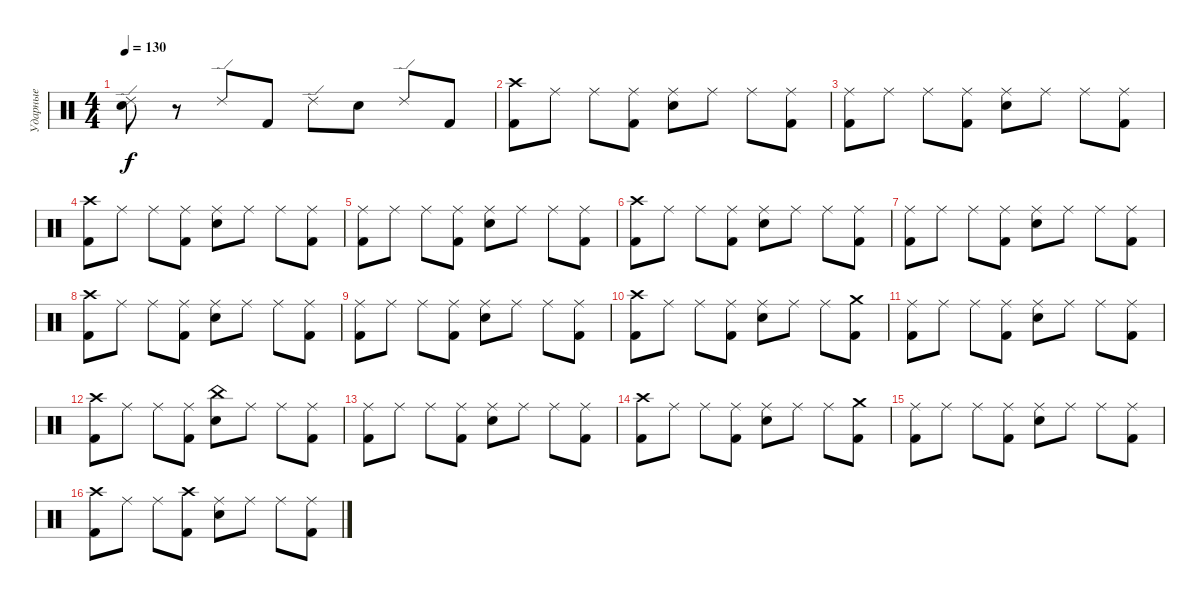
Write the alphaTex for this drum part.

\track ("Ударные" "Ударные") {instrument percussion}
\staff {score}
\articulation defaults
\ts (4 4)
\tempo 130
\clef neutral
\ks c
("Ride (edge) 2" "Electric Snare (hit)").8{dy f} r.8 "Ride (edge) 2".8 "Kick (hit) 2".8 "Ride (edge) 2".8 "Electric Snare (hit)".8 "Ride (edge) 2".8 "Kick (hit) 2".8 |
("Crash high (hit)" "Kick (hit) 2").8 "Ride (middle)".8 "Ride (middle)".8 ("Ride (middle)" "Kick (hit) 2").8 ("Ride (middle)" "Electric Snare (hit)").8 "Ride (middle)".8 "Ride (middle)".8 ("Ride (middle)" "Kick (hit) 2").8 |
("Ride (middle)" "Kick (hit) 2").8 "Ride (middle)".8 "Ride (middle)".8 ("Ride (middle)" "Kick (hit) 2").8 ("Ride (middle)" "Electric Snare (hit)").8 "Ride (middle)".8 "Ride (middle)".8 ("Ride (middle)" "Kick (hit) 2").8 |
("Crash high (hit)" "Kick (hit) 2").8 "Ride (middle)".8 "Ride (middle)".8 ("Ride (middle)" "Kick (hit) 2").8 ("Ride (middle)" "Electric Snare (hit)").8 "Ride (middle)".8 "Ride (middle)".8 ("Ride (middle)" "Kick (hit) 2").8 |
("Ride (middle)" "Kick (hit) 2").8 "Ride (middle)".8 "Ride (middle)".8 ("Ride (middle)" "Kick (hit) 2").8 ("Ride (middle)" "Electric Snare (hit)").8 "Ride (middle)".8 "Ride (middle)".8 ("Ride (middle)" "Kick (hit) 2").8 |
("Crash high (hit)" "Kick (hit) 2").8 "Ride (middle)".8 "Ride (middle)".8 ("Ride (middle)" "Kick (hit) 2").8 ("Ride (middle)" "Electric Snare (hit)").8 "Ride (middle)".8 "Ride (middle)".8 ("Ride (middle)" "Kick (hit) 2").8 |
("Ride (middle)" "Kick (hit) 2").8 "Ride (middle)".8 "Ride (middle)".8 ("Ride (middle)" "Kick (hit) 2").8 ("Ride (middle)" "Electric Snare (hit)").8 "Ride (middle)".8 "Ride (middle)".8 ("Ride (middle)" "Kick (hit) 2").8 |
("Crash high (hit)" "Kick (hit) 2").8 "Ride (middle)".8 "Ride (middle)".8 ("Ride (middle)" "Kick (hit) 2").8 ("Ride (middle)" "Electric Snare (hit)").8 "Ride (middle)".8 "Ride (middle)".8 ("Ride (middle)" "Kick (hit) 2").8 |
("Ride (middle)" "Kick (hit) 2").8 "Ride (middle)".8 "Ride (middle)".8 ("Ride (middle)" "Kick (hit) 2").8 ("Ride (middle)" "Electric Snare (hit)").8 "Ride (middle)".8 "Ride (middle)".8 ("Ride (middle)" "Kick (hit) 2").8 |
("Crash high (hit)" "Kick (hit) 2").8 "Ride (middle)".8 "Ride (middle)".8 ("Ride (middle)" "Kick (hit) 2").8 ("Ride (middle)" "Electric Snare (hit)").8 "Ride (middle)".8 "Ride (middle)".8 ("Crash medium (hit)" "Kick (hit) 2").8 |
("Ride (middle)" "Kick (hit) 2").8 "Ride (middle)".8 "Ride (middle)".8 ("Ride (middle)" "Kick (hit) 2").8 ("Ride (middle)" "Electric Snare (hit)").8 "Ride (middle)".8 "Ride (middle)".8 ("Ride (middle)" "Kick (hit) 2").8 |
("Crash high (hit)" "Kick (hit) 2").8 "Ride (middle)".8 "Ride (middle)".8 ("Ride (middle)" "Kick (hit) 2").8 ("China (hit)" "Electric Snare (hit)").8 "Ride (middle)".8 "Ride (middle)".8 ("Ride (middle)" "Kick (hit) 2").8 |
("Ride (middle)" "Kick (hit) 2").8 "Ride (middle)".8 "Ride (middle)".8 ("Ride (middle)" "Kick (hit) 2").8 ("Ride (middle)" "Electric Snare (hit)").8 "Ride (middle)".8 "Ride (middle)".8 ("Ride (middle)" "Kick (hit) 2").8 |
("Crash high (hit)" "Kick (hit) 2").8 "Ride (middle)".8 "Ride (middle)".8 ("Ride (middle)" "Kick (hit) 2").8 ("Ride (middle)" "Electric Snare (hit)").8 "Ride (middle)".8 "Ride (middle)".8 ("Crash medium (hit)" "Kick (hit) 2").8 |
("Ride (middle)" "Kick (hit) 2").8 "Ride (middle)".8 "Ride (middle)".8 ("Ride (middle)" "Kick (hit) 2").8 ("Ride (middle)" "Electric Snare (hit)").8 "Ride (middle)".8 "Ride (middle)".8 ("Ride (middle)" "Kick (hit) 2").8 |
("Crash high (hit)" "Kick (hit) 2").8 "Ride (middle)".8 "Ride (middle)".8 ("Crash high (hit)" "Kick (hit) 2").8 ("Ride (middle)" "Electric Snare (hit)").8 "Ride (middle)".8 "Ride (middle)".8 ("Ride (middle)" "Kick (hit) 2").8
